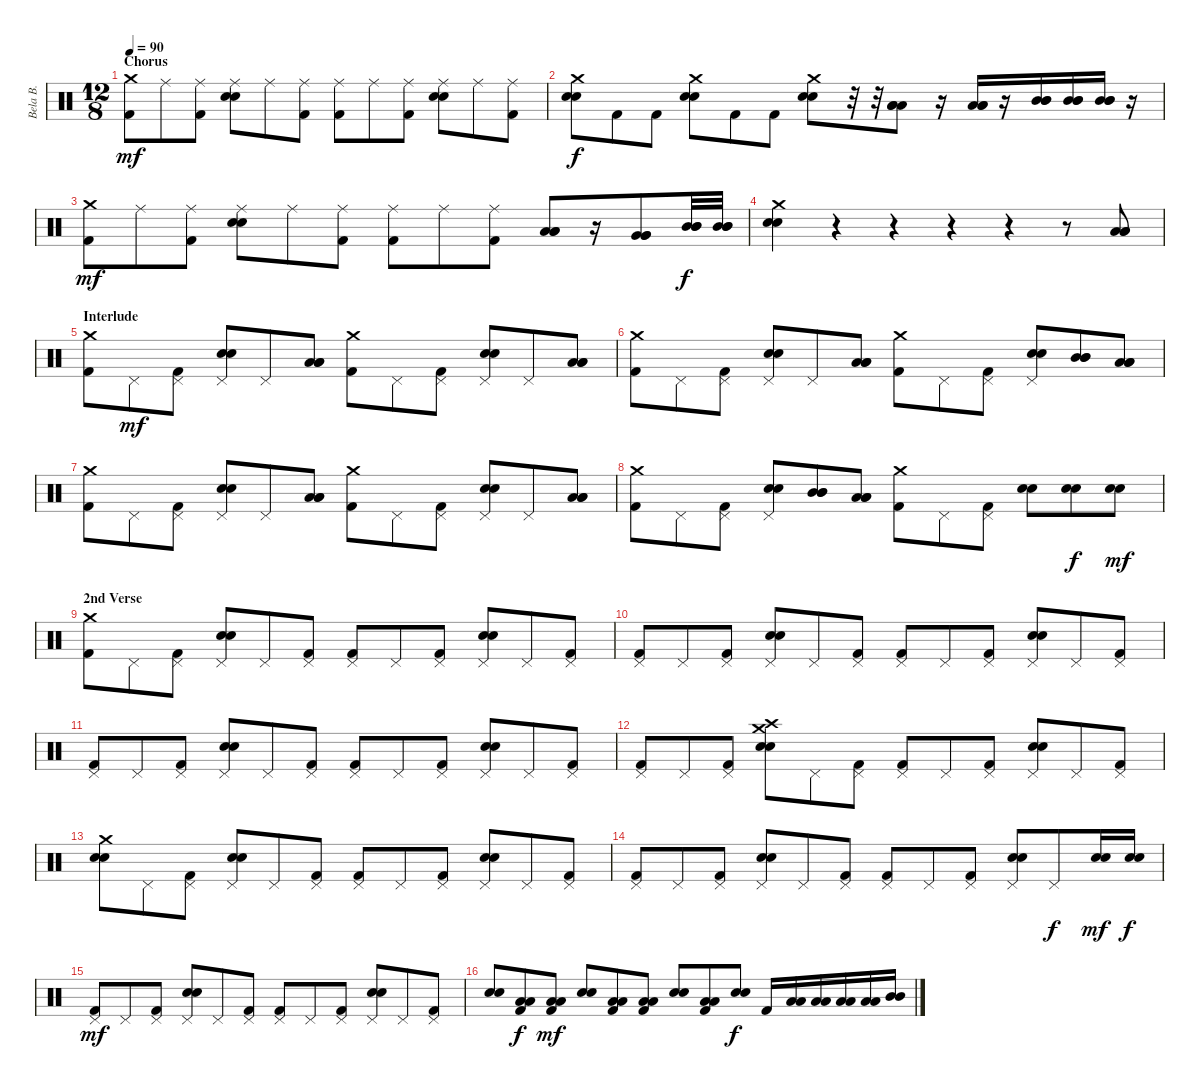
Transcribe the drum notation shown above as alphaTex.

\track ("Bela B." "Bela B.") {instrument percussion}
\staff {score}
\articulation defaults
\ts (12 8)
\section ("" "Chorus")
\tempo 90
\clef neutral
\ks c
("Crash medium (hit)" "Kick (hit) 2").8{dy mf} "Ride (middle)".8 ("Ride (middle)" "Kick (hit) 2").8 ("Ride (middle)" "Electric Snare (hit)" "Snare (hit) 2").8 "Ride (middle)".8 ("Ride (middle)" "Kick (hit) 2").8 ("Ride (middle)" "Kick (hit) 2").8 "Ride (middle)".8 ("Ride (middle)" "Kick (hit) 2").8 ("Ride (middle)" "Electric Snare (hit)" "Snare (hit) 2").8 "Ride (middle)".8 ("Ride (middle)" "Kick (hit) 2").8 |
("Crash medium (hit)" "Electric Snare (hit)" "Snare (hit) 2").8{dy f} "Kick (hit) 2".8 "Kick (hit) 2".8 ("Crash medium (hit)" "Electric Snare (hit)" "Snare (hit) 2").8 "Kick (hit) 2".8 "Kick (hit) 2".8 ("Crash medium (hit)" "Electric Snare (hit)" "Snare (hit) 2").8 r.32 r.32 ("Low Floor Tom (hit)" "Low Floor Tom (hit)" "Low Floor Tom (hit)").8 r.16 ("Low Tom (hit)" "Low Tom (hit)" "Low Tom (hit)").16 r.16 ("Mid Tom (hit)" "Mid Tom (hit)" "Mid Tom (hit)").16 ("Mid Tom (hit)" "Mid Tom (hit)" "Mid Tom (hit)").16 ("Mid Tom (hit)" "Mid Tom (hit)" "Mid Tom (hit)").16 r.16 |
("Crash medium (hit)" "Kick (hit) 2").8{dy mf} "Ride (middle)".8 ("Ride (middle)" "Kick (hit) 2").8 ("Ride (middle)" "Electric Snare (hit)" "Snare (hit) 2").8 "Ride (middle)".8 ("Ride (middle)" "Kick (hit) 2").8 ("Ride (middle)" "Kick (hit) 2").8 "Ride (middle)".8 ("Ride (middle)" "Kick (hit) 2").8 ("Low Tom (hit)" "Low Tom (hit)" "Low Tom (hit)").8 r.16 ("Very Low Tom (hit)" "Very Low Tom (hit)" "Very Low Tom (hit)").8 ("Mid Tom (hit)" "Mid Tom (hit)" "Mid Tom (hit)").32{dy f} ("Mid Tom (hit)" "Mid Tom (hit)" "Mid Tom (hit)").32 |
("Crash medium (hit)" "Electric Snare (hit)" "Snare (hit) 2").4 r.4 r.4 r.4 r.4 r.8 ("Low Tom (hit)" "Low Tom (hit)" "Low Tom (hit)").8 |
\section ("" "Interlude")
("Crash medium (hit)" "Kick (hit) 2").8 "Pedal Hi-Hat (hit)".8{dy mf} ("Pedal Hi-Hat (hit)" "Kick (hit) 2").8 ("Pedal Hi-Hat (hit)" "Electric Snare (hit)" "Snare (hit) 2").8 "Pedal Hi-Hat (hit)".8 ("Low Tom (hit)" "Low Tom (hit)" "Low Tom (hit)").8 ("Crash medium (hit)" "Kick (hit) 2").8 "Pedal Hi-Hat (hit)".8 ("Pedal Hi-Hat (hit)" "Kick (hit) 2").8 ("Pedal Hi-Hat (hit)" "Electric Snare (hit)" "Snare (hit) 2").8 "Pedal Hi-Hat (hit)".8 ("Low Tom (hit)" "Low Tom (hit)" "Low Tom (hit)").8 |
("Crash medium (hit)" "Kick (hit) 2").8 "Pedal Hi-Hat (hit)".8 ("Pedal Hi-Hat (hit)" "Kick (hit) 2").8 ("Pedal Hi-Hat (hit)" "Electric Snare (hit)" "Snare (hit) 2").8 "Pedal Hi-Hat (hit)".8 ("Low Tom (hit)" "Low Tom (hit)" "Low Tom (hit)").8 ("Crash medium (hit)" "Kick (hit) 2").8 "Pedal Hi-Hat (hit)".8 ("Pedal Hi-Hat (hit)" "Kick (hit) 2").8 ("Pedal Hi-Hat (hit)" "Electric Snare (hit)" "Snare (hit) 2").8 ("Mid Tom (hit)" "Mid Tom (hit)" "Mid Tom (hit)").8 ("Low Tom (hit)" "Low Tom (hit)" "Low Tom (hit)").8 |
("Crash medium (hit)" "Kick (hit) 2").8 "Pedal Hi-Hat (hit)".8 ("Pedal Hi-Hat (hit)" "Kick (hit) 2").8 ("Pedal Hi-Hat (hit)" "Electric Snare (hit)" "Snare (hit) 2").8 "Pedal Hi-Hat (hit)".8 ("Low Tom (hit)" "Low Tom (hit)" "Low Tom (hit)").8 ("Crash medium (hit)" "Kick (hit) 2").8 "Pedal Hi-Hat (hit)".8 ("Pedal Hi-Hat (hit)" "Kick (hit) 2").8 ("Pedal Hi-Hat (hit)" "Electric Snare (hit)" "Snare (hit) 2").8 "Pedal Hi-Hat (hit)".8 ("Low Tom (hit)" "Low Tom (hit)" "Low Tom (hit)").8 |
("Crash medium (hit)" "Kick (hit) 2").8 "Pedal Hi-Hat (hit)".8 ("Pedal Hi-Hat (hit)" "Kick (hit) 2").8 ("Pedal Hi-Hat (hit)" "Electric Snare (hit)" "Snare (hit) 2").8 ("Mid Tom (hit)" "Mid Tom (hit)" "Mid Tom (hit)").8 ("Low Tom (hit)" "Low Tom (hit)" "Low Tom (hit)").8 ("Crash medium (hit)" "Kick (hit) 2").8 "Pedal Hi-Hat (hit)".8 ("Pedal Hi-Hat (hit)" "Kick (hit) 2").8 ("Electric Snare (hit)" "Snare (hit) 2").8 ("Electric Snare (hit)" "Snare (hit) 2").8{dy f} ("Electric Snare (hit)" "Snare (hit) 2").8{dy mf} |
\section ("" "2nd Verse")
("Crash medium (hit)" "Kick (hit) 2").8 "Pedal Hi-Hat (hit)".8 ("Pedal Hi-Hat (hit)" "Kick (hit) 2").8 ("Pedal Hi-Hat (hit)" "Electric Snare (hit)" "Snare (hit) 2").8 "Pedal Hi-Hat (hit)".8 ("Pedal Hi-Hat (hit)" "Kick (hit) 2").8 ("Pedal Hi-Hat (hit)" "Kick (hit) 2").8 "Pedal Hi-Hat (hit)".8 ("Pedal Hi-Hat (hit)" "Kick (hit) 2").8 ("Pedal Hi-Hat (hit)" "Electric Snare (hit)" "Snare (hit) 2").8 "Pedal Hi-Hat (hit)".8 ("Pedal Hi-Hat (hit)" "Kick (hit) 2").8 |
("Pedal Hi-Hat (hit)" "Kick (hit) 2").8 "Pedal Hi-Hat (hit)".8 ("Pedal Hi-Hat (hit)" "Kick (hit) 2").8 ("Pedal Hi-Hat (hit)" "Electric Snare (hit)" "Snare (hit) 2").8 "Pedal Hi-Hat (hit)".8 ("Pedal Hi-Hat (hit)" "Kick (hit) 2").8 ("Pedal Hi-Hat (hit)" "Kick (hit) 2").8 "Pedal Hi-Hat (hit)".8 ("Pedal Hi-Hat (hit)" "Kick (hit) 2").8 ("Pedal Hi-Hat (hit)" "Electric Snare (hit)" "Snare (hit) 2").8 "Pedal Hi-Hat (hit)".8 ("Pedal Hi-Hat (hit)" "Kick (hit) 2").8 |
("Pedal Hi-Hat (hit)" "Kick (hit) 2").8 "Pedal Hi-Hat (hit)".8 ("Pedal Hi-Hat (hit)" "Kick (hit) 2").8 ("Pedal Hi-Hat (hit)" "Electric Snare (hit)" "Snare (hit) 2").8 "Pedal Hi-Hat (hit)".8 ("Pedal Hi-Hat (hit)" "Kick (hit) 2").8 ("Pedal Hi-Hat (hit)" "Kick (hit) 2").8 "Pedal Hi-Hat (hit)".8 ("Pedal Hi-Hat (hit)" "Kick (hit) 2").8 ("Pedal Hi-Hat (hit)" "Electric Snare (hit)" "Snare (hit) 2").8 "Pedal Hi-Hat (hit)".8 ("Pedal Hi-Hat (hit)" "Kick (hit) 2").8 |
("Pedal Hi-Hat (hit)" "Kick (hit) 2").8 "Pedal Hi-Hat (hit)".8 ("Pedal Hi-Hat (hit)" "Kick (hit) 2").8 ("Crash medium (hit)" "Crash high (hit)" "Electric Snare (hit)" "Snare (hit) 2").8 "Pedal Hi-Hat (hit)".8 ("Pedal Hi-Hat (hit)" "Kick (hit) 2").8 ("Pedal Hi-Hat (hit)" "Kick (hit) 2").8 "Pedal Hi-Hat (hit)".8 ("Pedal Hi-Hat (hit)" "Kick (hit) 2").8 ("Pedal Hi-Hat (hit)" "Electric Snare (hit)" "Snare (hit) 2").8 "Pedal Hi-Hat (hit)".8 ("Pedal Hi-Hat (hit)" "Kick (hit) 2").8 |
("Crash medium (hit)" "Electric Snare (hit)" "Snare (hit) 2").8 "Pedal Hi-Hat (hit)".8 ("Pedal Hi-Hat (hit)" "Kick (hit) 2").8 ("Pedal Hi-Hat (hit)" "Electric Snare (hit)" "Snare (hit) 2").8 "Pedal Hi-Hat (hit)".8 ("Pedal Hi-Hat (hit)" "Kick (hit) 2").8 ("Pedal Hi-Hat (hit)" "Kick (hit) 2").8 "Pedal Hi-Hat (hit)".8 ("Pedal Hi-Hat (hit)" "Kick (hit) 2").8 ("Pedal Hi-Hat (hit)" "Electric Snare (hit)" "Snare (hit) 2").8 "Pedal Hi-Hat (hit)".8 ("Pedal Hi-Hat (hit)" "Kick (hit) 2").8 |
("Pedal Hi-Hat (hit)" "Kick (hit) 2").8 "Pedal Hi-Hat (hit)".8 ("Pedal Hi-Hat (hit)" "Kick (hit) 2").8 ("Pedal Hi-Hat (hit)" "Electric Snare (hit)" "Snare (hit) 2").8 "Pedal Hi-Hat (hit)".8 ("Pedal Hi-Hat (hit)" "Kick (hit) 2").8 ("Pedal Hi-Hat (hit)" "Kick (hit) 2").8 "Pedal Hi-Hat (hit)".8 ("Pedal Hi-Hat (hit)" "Kick (hit) 2").8 ("Pedal Hi-Hat (hit)" "Electric Snare (hit)" "Snare (hit) 2").8 "Pedal Hi-Hat (hit)".8{dy f} ("Electric Snare (hit)" "Snare (hit) 2").16{dy mf} ("Electric Snare (hit)" "Snare (hit) 2").16{dy f} |
("Pedal Hi-Hat (hit)" "Kick (hit) 2").8{dy mf} "Pedal Hi-Hat (hit)".8 ("Pedal Hi-Hat (hit)" "Kick (hit) 2").8 ("Pedal Hi-Hat (hit)" "Electric Snare (hit)" "Snare (hit) 2").8 "Pedal Hi-Hat (hit)".8 ("Pedal Hi-Hat (hit)" "Kick (hit) 2").8 ("Pedal Hi-Hat (hit)" "Kick (hit) 2").8 "Pedal Hi-Hat (hit)".8 ("Pedal Hi-Hat (hit)" "Kick (hit) 2").8 ("Pedal Hi-Hat (hit)" "Electric Snare (hit)" "Snare (hit) 2").8 "Pedal Hi-Hat (hit)".8 ("Pedal Hi-Hat (hit)" "Kick (hit) 2").8 |
("Electric Snare (hit)" "Snare (hit) 2").8 ("Low Tom (hit)" "Low Tom (hit)" "Kick (hit) 2").8{dy f} ("Low Tom (hit)" "Low Tom (hit)" "Kick (hit) 2").8{dy mf} ("Electric Snare (hit)" "Snare (hit) 2").8 ("Low Tom (hit)" "Low Tom (hit)" "Kick (hit) 2").8 ("Low Tom (hit)" "Low Tom (hit)" "Kick (hit) 2").8 ("Electric Snare (hit)" "Snare (hit) 2").8 ("Low Tom (hit)" "Low Tom (hit)" "Kick (hit) 2").8 ("Electric Snare (hit)" "Snare (hit) 2").8{dy f} "Kick (hit) 2".16 ("Low Floor Tom (hit)" "Low Floor Tom (hit)").16 ("Low Floor Tom (hit)" "Low Floor Tom (hit)").16 ("Low Floor Tom (hit)" "Low Floor Tom (hit)").16 ("Low Tom (hit)" "Low Tom (hit)").16 ("Mid Tom (hit)" "Mid Tom (hit)").16
